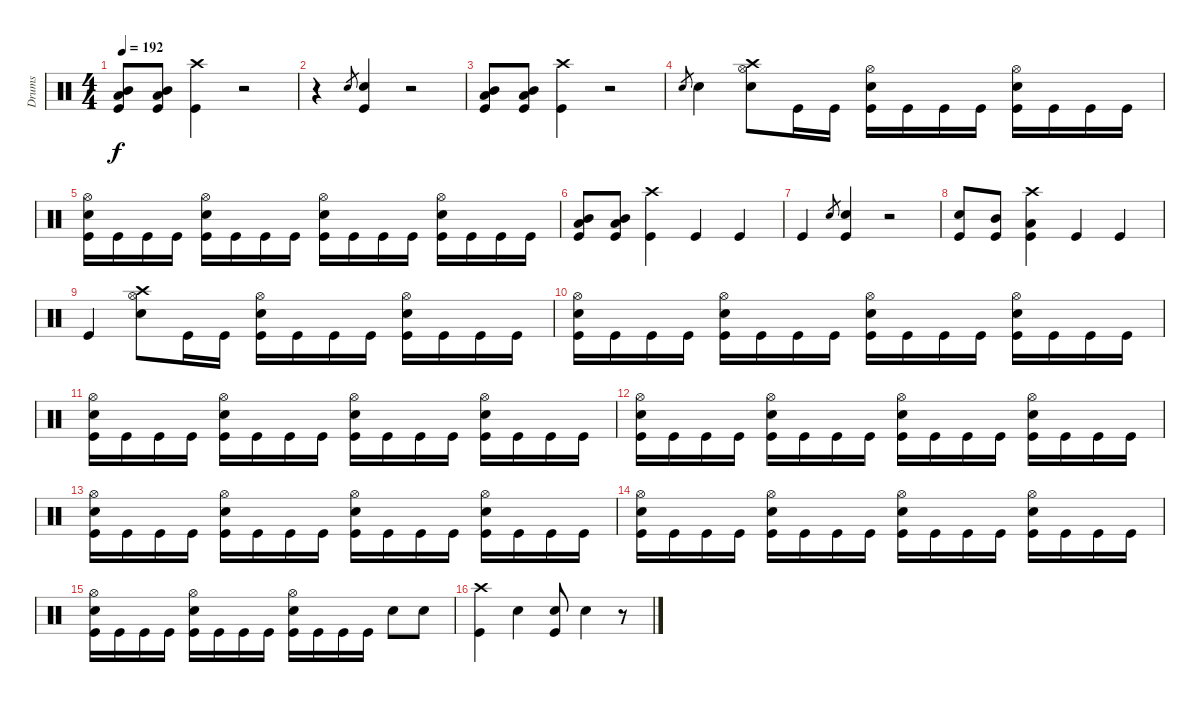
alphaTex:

\track ("Drums" "Drums") {instrument percussion}
\staff {score}
\articulation defaults
\ts (4 4)
\tempo 192
\clef neutral
\ks c
("Low Tom (hit)" "Mid Tom (hit)" "Kick (hit)").8{dy f} ("Low Tom (hit)" "Mid Tom (hit)" "Kick (hit)").8 ("Crash high (hit)" "Kick (hit)").4 r.2 |
r.4 "Snare (hit) 2".8{gr} ("Snare (hit) 2" "Kick (hit)").4 r.2 |
("Low Tom (hit)" "Mid Tom (hit)" "Kick (hit)").8 ("Low Tom (hit)" "Mid Tom (hit)" "Kick (hit)").8 ("Crash high (hit)" "Kick (hit)").4 r.2 |
"Snare (hit) 2".8{gr} "Snare (hit) 2".4 ("Crash high (hit)" "Hi-Hat (open)" "Snare (hit) 2").8 "Kick (hit)".16 "Kick (hit)".16 ("Hi-Hat (open)" "Snare (hit) 2" "Kick (hit)").16 "Kick (hit)".16 "Kick (hit)".16 "Kick (hit)".16 ("Hi-Hat (open)" "Snare (hit) 2" "Kick (hit)").16 "Kick (hit)".16 "Kick (hit)".16 "Kick (hit)".16 |
("Hi-Hat (open)" "Snare (hit) 2" "Kick (hit)").16 "Kick (hit)".16 "Kick (hit)".16 "Kick (hit)".16 ("Hi-Hat (open)" "Snare (hit) 2" "Kick (hit)").16 "Kick (hit)".16 "Kick (hit)".16 "Kick (hit)".16 ("Hi-Hat (open)" "Snare (hit) 2" "Kick (hit)").16 "Kick (hit)".16 "Kick (hit)".16 "Kick (hit)".16 ("Hi-Hat (open)" "Snare (hit) 2" "Kick (hit)").16 "Kick (hit)".16 "Kick (hit)".16 "Kick (hit)".16 |
("Low Tom (hit)" "Mid Tom (hit)" "Kick (hit)").8 ("Low Tom (hit)" "Mid Tom (hit)" "Kick (hit)").8 ("Crash high (hit)" "Kick (hit)").4 "Kick (hit)".4 "Kick (hit)".4 |
"Kick (hit)".4 "Snare (hit) 2".8{gr} ("Snare (hit) 2" "Kick (hit)").4 r.2 |
("Snare (hit) 2" "Kick (hit)").8 ("Mid Tom (hit)" "Kick (hit)").8 ("Crash high (hit)" "Low Tom (hit)" "Kick (hit)").4 "Kick (hit)".4 "Kick (hit)".4 |
"Kick (hit)".4 ("Crash high (hit)" "Hi-Hat (open)" "Snare (hit) 2").8 "Kick (hit)".16 "Kick (hit)".16 ("Hi-Hat (open)" "Snare (hit) 2" "Kick (hit)").16 "Kick (hit)".16 "Kick (hit)".16 "Kick (hit)".16 ("Hi-Hat (open)" "Snare (hit) 2" "Kick (hit)").16 "Kick (hit)".16 "Kick (hit)".16 "Kick (hit)".16 |
("Hi-Hat (open)" "Snare (hit) 2" "Kick (hit)").16 "Kick (hit)".16 "Kick (hit)".16 "Kick (hit)".16 ("Hi-Hat (open)" "Snare (hit) 2" "Kick (hit)").16 "Kick (hit)".16 "Kick (hit)".16 "Kick (hit)".16 ("Hi-Hat (open)" "Snare (hit) 2" "Kick (hit)").16 "Kick (hit)".16 "Kick (hit)".16 "Kick (hit)".16 ("Hi-Hat (open)" "Snare (hit) 2" "Kick (hit)").16 "Kick (hit)".16 "Kick (hit)".16 "Kick (hit)".16 |
("Hi-Hat (open)" "Snare (hit) 2" "Kick (hit)").16 "Kick (hit)".16 "Kick (hit)".16 "Kick (hit)".16 ("Hi-Hat (open)" "Snare (hit) 2" "Kick (hit)").16 "Kick (hit)".16 "Kick (hit)".16 "Kick (hit)".16 ("Hi-Hat (open)" "Snare (hit) 2" "Kick (hit)").16 "Kick (hit)".16 "Kick (hit)".16 "Kick (hit)".16 ("Hi-Hat (open)" "Snare (hit) 2" "Kick (hit)").16 "Kick (hit)".16 "Kick (hit)".16 "Kick (hit)".16 |
("Hi-Hat (open)" "Snare (hit) 2" "Kick (hit)").16 "Kick (hit)".16 "Kick (hit)".16 "Kick (hit)".16 ("Hi-Hat (open)" "Snare (hit) 2" "Kick (hit)").16 "Kick (hit)".16 "Kick (hit)".16 "Kick (hit)".16 ("Hi-Hat (open)" "Snare (hit) 2" "Kick (hit)").16 "Kick (hit)".16 "Kick (hit)".16 "Kick (hit)".16 ("Hi-Hat (open)" "Snare (hit) 2" "Kick (hit)").16 "Kick (hit)".16 "Kick (hit)".16 "Kick (hit)".16 |
("Hi-Hat (open)" "Snare (hit) 2" "Kick (hit)").16 "Kick (hit)".16 "Kick (hit)".16 "Kick (hit)".16 ("Hi-Hat (open)" "Snare (hit) 2" "Kick (hit)").16 "Kick (hit)".16 "Kick (hit)".16 "Kick (hit)".16 ("Hi-Hat (open)" "Snare (hit) 2" "Kick (hit)").16 "Kick (hit)".16 "Kick (hit)".16 "Kick (hit)".16 ("Hi-Hat (open)" "Snare (hit) 2" "Kick (hit)").16 "Kick (hit)".16 "Kick (hit)".16 "Kick (hit)".16 |
("Hi-Hat (open)" "Snare (hit) 2" "Kick (hit)").16 "Kick (hit)".16 "Kick (hit)".16 "Kick (hit)".16 ("Hi-Hat (open)" "Snare (hit) 2" "Kick (hit)").16 "Kick (hit)".16 "Kick (hit)".16 "Kick (hit)".16 ("Hi-Hat (open)" "Snare (hit) 2" "Kick (hit)").16 "Kick (hit)".16 "Kick (hit)".16 "Kick (hit)".16 ("Hi-Hat (open)" "Snare (hit) 2" "Kick (hit)").16 "Kick (hit)".16 "Kick (hit)".16 "Kick (hit)".16 |
("Hi-Hat (open)" "Snare (hit) 2" "Kick (hit)").16 "Kick (hit)".16 "Kick (hit)".16 "Kick (hit)".16 ("Hi-Hat (open)" "Snare (hit) 2" "Kick (hit)").16 "Kick (hit)".16 "Kick (hit)".16 "Kick (hit)".16 ("Hi-Hat (open)" "Snare (hit) 2" "Kick (hit)").16 "Kick (hit)".16 "Kick (hit)".16 "Kick (hit)".16 "Snare (hit) 2".8 "Snare (hit) 2".8 |
("Crash high (hit)" "Kick (hit)").4 "Snare (hit) 2".4 ("Snare (hit) 2" "Kick (hit)").8 "Snare (hit) 2".4 r.8
